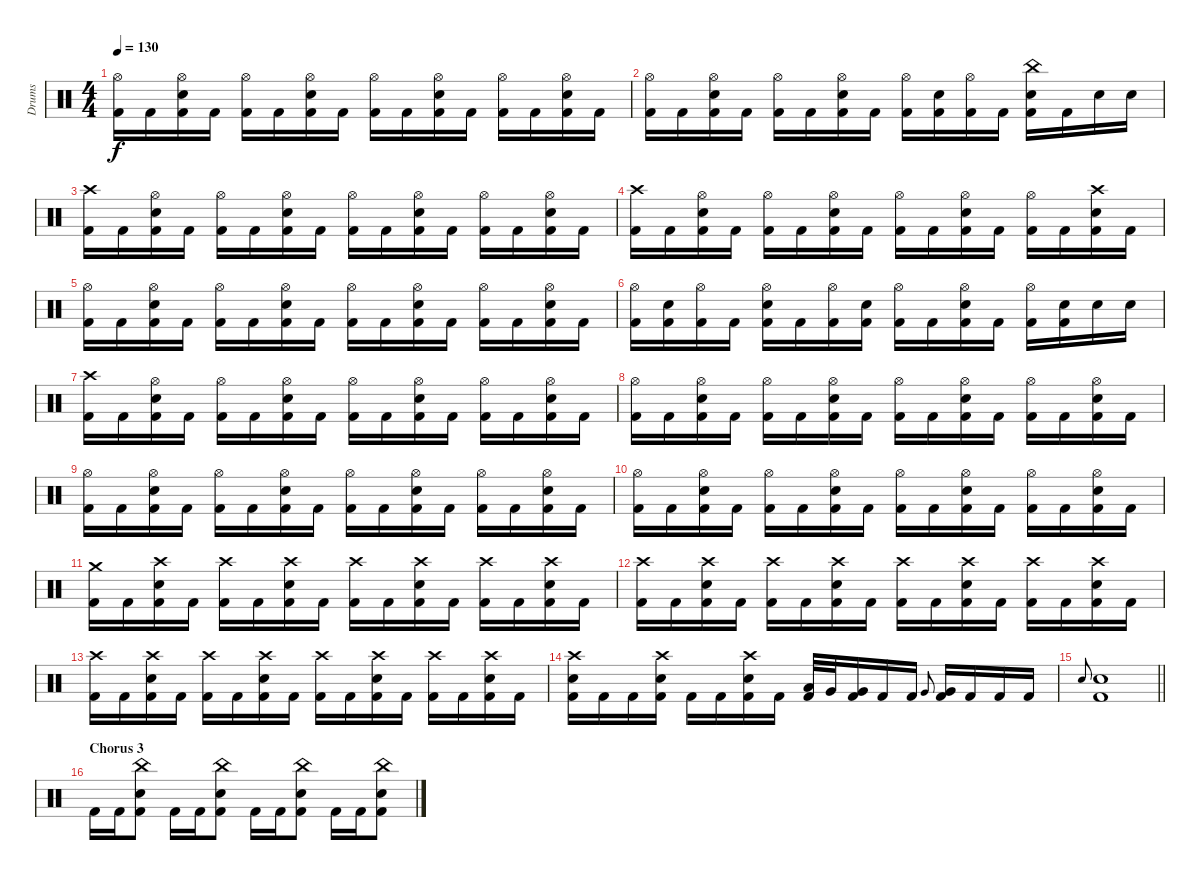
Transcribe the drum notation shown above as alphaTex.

\track ("Drums" "Drums") {instrument percussion}
\staff {score}
\articulation defaults
\ts (4 4)
\tempo 130
\clef neutral
\ks c
("Hi-Hat (open)" "Kick (hit) 2").16{dy f} "Kick (hit) 2".16 ("Hi-Hat (open)" "Electric Snare (hit)" "Kick (hit) 2").16 "Kick (hit) 2".16 ("Hi-Hat (open)" "Kick (hit) 2").16 "Kick (hit) 2".16 ("Hi-Hat (open)" "Electric Snare (hit)" "Kick (hit) 2").16 "Kick (hit) 2".16 ("Hi-Hat (open)" "Kick (hit) 2").16 "Kick (hit) 2".16 ("Hi-Hat (open)" "Electric Snare (hit)" "Kick (hit) 2").16 "Kick (hit) 2".16 ("Hi-Hat (open)" "Kick (hit) 2").16 "Kick (hit) 2".16 ("Hi-Hat (open)" "Electric Snare (hit)" "Kick (hit) 2").16 "Kick (hit) 2".16 |
("Hi-Hat (open)" "Kick (hit) 2").16 "Kick (hit) 2".16 ("Hi-Hat (open)" "Electric Snare (hit)" "Kick (hit) 2").16 "Kick (hit) 2".16 ("Hi-Hat (open)" "Kick (hit) 2").16 "Kick (hit) 2".16 ("Hi-Hat (open)" "Electric Snare (hit)" "Kick (hit) 2").16 "Kick (hit) 2".16 ("Hi-Hat (open)" "Kick (hit) 2").16 ("Electric Snare (hit)" "Kick (hit) 2").16 ("Hi-Hat (open)" "Kick (hit) 2").16 "Kick (hit) 2".16 ("China (hit)" "Electric Snare (hit)" "Kick (hit) 2").16 "Kick (hit) 2".16 "Electric Snare (hit)".16 "Electric Snare (hit)".16 |
("Crash high (hit)" "Kick (hit) 2").16 "Kick (hit) 2".16 ("Hi-Hat (open)" "Electric Snare (hit)" "Kick (hit) 2").16 "Kick (hit) 2".16 ("Hi-Hat (open)" "Kick (hit) 2").16 "Kick (hit) 2".16 ("Hi-Hat (open)" "Electric Snare (hit)" "Kick (hit) 2").16 "Kick (hit) 2".16 ("Hi-Hat (open)" "Kick (hit) 2").16 "Kick (hit) 2".16 ("Hi-Hat (open)" "Electric Snare (hit)" "Kick (hit) 2").16 "Kick (hit) 2".16 ("Hi-Hat (open)" "Kick (hit) 2").16 "Kick (hit) 2".16 ("Hi-Hat (open)" "Electric Snare (hit)" "Kick (hit) 2").16 "Kick (hit) 2".16 |
("Crash high (hit)" "Kick (hit) 2").16 "Kick (hit) 2".16 ("Hi-Hat (open)" "Electric Snare (hit)" "Kick (hit) 2").16 "Kick (hit) 2".16 ("Hi-Hat (open)" "Kick (hit) 2").16 "Kick (hit) 2".16 ("Hi-Hat (open)" "Electric Snare (hit)" "Kick (hit) 2").16 "Kick (hit) 2".16 ("Hi-Hat (open)" "Kick (hit) 2").16 "Kick (hit) 2".16 ("Hi-Hat (open)" "Electric Snare (hit)" "Kick (hit) 2").16 "Kick (hit) 2".16 ("Hi-Hat (open)" "Kick (hit) 2").16 "Kick (hit) 2".16 ("Crash high (hit)" "Electric Snare (hit)" "Kick (hit) 2").16 "Kick (hit) 2".16 |
("Hi-Hat (open)" "Kick (hit) 2").16 "Kick (hit) 2".16 ("Hi-Hat (open)" "Electric Snare (hit)" "Kick (hit) 2").16 "Kick (hit) 2".16 ("Hi-Hat (open)" "Kick (hit) 2").16 "Kick (hit) 2".16 ("Hi-Hat (open)" "Electric Snare (hit)" "Kick (hit) 2").16 "Kick (hit) 2".16 ("Hi-Hat (open)" "Kick (hit) 2").16 "Kick (hit) 2".16 ("Hi-Hat (open)" "Electric Snare (hit)" "Kick (hit) 2").16 "Kick (hit) 2".16 ("Hi-Hat (open)" "Kick (hit) 2").16 "Kick (hit) 2".16 ("Hi-Hat (open)" "Electric Snare (hit)" "Kick (hit) 2").16 "Kick (hit) 2".16 |
("Hi-Hat (open)" "Kick (hit) 2").16 ("Electric Snare (hit)" "Kick (hit) 2").16 ("Hi-Hat (open)" "Kick (hit) 2").16 "Kick (hit) 2".16 ("Hi-Hat (open)" "Electric Snare (hit)" "Kick (hit) 2").16 "Kick (hit) 2".16 ("Hi-Hat (open)" "Kick (hit) 2").16 ("Electric Snare (hit)" "Kick (hit) 2").16 ("Hi-Hat (open)" "Kick (hit) 2").16 "Kick (hit) 2".16 ("Hi-Hat (open)" "Electric Snare (hit)" "Kick (hit) 2").16 "Kick (hit) 2".16 ("Hi-Hat (open)" "Kick (hit) 2").16 ("Electric Snare (hit)" "Kick (hit) 2").16 "Electric Snare (hit)".16 "Electric Snare (hit)".16 |
("Crash high (hit)" "Kick (hit) 2").16 "Kick (hit) 2".16 ("Hi-Hat (open)" "Electric Snare (hit)" "Kick (hit) 2").16 "Kick (hit) 2".16 ("Hi-Hat (open)" "Kick (hit) 2").16 "Kick (hit) 2".16 ("Hi-Hat (open)" "Electric Snare (hit)" "Kick (hit) 2").16 "Kick (hit) 2".16 ("Hi-Hat (open)" "Kick (hit) 2").16 "Kick (hit) 2".16 ("Hi-Hat (open)" "Electric Snare (hit)" "Kick (hit) 2").16 "Kick (hit) 2".16 ("Hi-Hat (open)" "Kick (hit) 2").16 "Kick (hit) 2".16 ("Hi-Hat (open)" "Electric Snare (hit)" "Kick (hit) 2").16 "Kick (hit) 2".16 |
("Hi-Hat (open)" "Kick (hit) 2").16 "Kick (hit) 2".16 ("Hi-Hat (open)" "Electric Snare (hit)" "Kick (hit) 2").16 "Kick (hit) 2".16 ("Hi-Hat (open)" "Kick (hit) 2").16 "Kick (hit) 2".16 ("Hi-Hat (open)" "Electric Snare (hit)" "Kick (hit) 2").16 "Kick (hit) 2".16 ("Hi-Hat (open)" "Kick (hit) 2").16 "Kick (hit) 2".16 ("Hi-Hat (open)" "Electric Snare (hit)" "Kick (hit) 2").16 "Kick (hit) 2".16 ("Hi-Hat (open)" "Kick (hit) 2").16 "Kick (hit) 2".16 ("Hi-Hat (open)" "Electric Snare (hit)" "Kick (hit) 2").16 "Kick (hit) 2".16 |
("Hi-Hat (open)" "Kick (hit) 2").16 "Kick (hit) 2".16 ("Hi-Hat (open)" "Electric Snare (hit)" "Kick (hit) 2").16 "Kick (hit) 2".16 ("Hi-Hat (open)" "Kick (hit) 2").16 "Kick (hit) 2".16 ("Hi-Hat (open)" "Electric Snare (hit)" "Kick (hit) 2").16 "Kick (hit) 2".16 ("Hi-Hat (open)" "Kick (hit) 2").16 "Kick (hit) 2".16 ("Hi-Hat (open)" "Electric Snare (hit)" "Kick (hit) 2").16 "Kick (hit) 2".16 ("Hi-Hat (open)" "Kick (hit) 2").16 "Kick (hit) 2".16 ("Hi-Hat (open)" "Electric Snare (hit)" "Kick (hit) 2").16 "Kick (hit) 2".16 |
("Hi-Hat (open)" "Kick (hit) 2").16 "Kick (hit) 2".16 ("Hi-Hat (open)" "Electric Snare (hit)" "Kick (hit) 2").16 "Kick (hit) 2".16 ("Hi-Hat (open)" "Kick (hit) 2").16 "Kick (hit) 2".16 ("Hi-Hat (open)" "Electric Snare (hit)" "Kick (hit) 2").16 "Kick (hit) 2".16 ("Hi-Hat (open)" "Kick (hit) 2").16 "Kick (hit) 2".16 ("Hi-Hat (open)" "Electric Snare (hit)" "Kick (hit) 2").16 "Kick (hit) 2".16 ("Hi-Hat (open)" "Kick (hit) 2").16 "Kick (hit) 2".16 ("Hi-Hat (open)" "Electric Snare (hit)" "Kick (hit) 2").16 "Kick (hit) 2".16 |
("Crash medium (hit)" "Kick (hit) 2").16 "Kick (hit) 2".16 ("Crash high (hit)" "Electric Snare (hit)" "Kick (hit) 2").16 "Kick (hit) 2".16 ("Crash high (hit)" "Kick (hit) 2").16 "Kick (hit) 2".16 ("Crash high (hit)" "Electric Snare (hit)" "Kick (hit) 2").16 "Kick (hit) 2".16 ("Crash high (hit)" "Kick (hit) 2").16 "Kick (hit) 2".16 ("Crash high (hit)" "Electric Snare (hit)" "Kick (hit) 2").16 "Kick (hit) 2".16 ("Crash high (hit)" "Kick (hit) 2").16 "Kick (hit) 2".16 ("Crash high (hit)" "Electric Snare (hit)" "Kick (hit) 2").16 "Kick (hit) 2".16 |
("Crash high (hit)" "Kick (hit) 2").16 "Kick (hit) 2".16 ("Crash high (hit)" "Electric Snare (hit)" "Kick (hit) 2").16 "Kick (hit) 2".16 ("Crash high (hit)" "Kick (hit) 2").16 "Kick (hit) 2".16 ("Crash high (hit)" "Electric Snare (hit)" "Kick (hit) 2").16 "Kick (hit) 2".16 ("Crash high (hit)" "Kick (hit) 2").16 "Kick (hit) 2".16 ("Crash high (hit)" "Electric Snare (hit)" "Kick (hit) 2").16 "Kick (hit) 2".16 ("Crash high (hit)" "Kick (hit) 2").16 "Kick (hit) 2".16 ("Crash high (hit)" "Electric Snare (hit)" "Kick (hit) 2").16 "Kick (hit) 2".16 |
("Crash high (hit)" "Kick (hit) 2").16 "Kick (hit) 2".16 ("Crash high (hit)" "Electric Snare (hit)" "Kick (hit) 2").16 "Kick (hit) 2".16 ("Crash high (hit)" "Kick (hit) 2").16 "Kick (hit) 2".16 ("Crash high (hit)" "Electric Snare (hit)" "Kick (hit) 2").16 "Kick (hit) 2".16 ("Crash high (hit)" "Kick (hit) 2").16 "Kick (hit) 2".16 ("Crash high (hit)" "Electric Snare (hit)" "Kick (hit) 2").16 "Kick (hit) 2".16 ("Crash high (hit)" "Kick (hit) 2").16 "Kick (hit) 2".16 ("Crash high (hit)" "Electric Snare (hit)" "Kick (hit) 2").16 "Kick (hit) 2".16 |
("Crash high (hit)" "Electric Snare (hit)" "Kick (hit) 2").16 "Kick (hit) 2".16 "Kick (hit) 2".16 ("Crash high (hit)" "Electric Snare (hit)" "Kick (hit) 2").16 "Kick (hit) 2".16 "Kick (hit) 2".16 ("Crash high (hit)" "Electric Snare (hit)" "Kick (hit) 2").16 "Kick (hit) 2".16 ("Low Tom (hit)" "Kick (hit) 2").32 "Very Low Tom (hit)".32 ("Very Low Tom (hit)" "Kick (hit) 2").16 "Kick (hit) 2".16 "Kick (hit) 2".16 "Very Low Tom (hit)".8{gr onbeat} ("Very Low Tom (hit)" "Kick (hit) 2").16 "Kick (hit) 2".16 "Kick (hit) 2".16 "Kick (hit) 2".16 |
\barLineRight lightlight "Electric Snare (hit)".8{gr onbeat}
("Electric Snare (hit)" "Kick (hit) 2").1 |
\section ("" "Chorus 3")
"Kick (hit) 2".16 "Kick (hit) 2".16 ("China (hit)" "Electric Snare (hit)" "Kick (hit) 2").8 "Kick (hit) 2".16 "Kick (hit) 2".16 ("China (hit)" "Electric Snare (hit)" "Kick (hit) 2").8 "Kick (hit) 2".16 "Kick (hit) 2".16 ("China (hit)" "Electric Snare (hit)" "Kick (hit) 2").8 "Kick (hit) 2".16 "Kick (hit) 2".16 ("China (hit)" "Electric Snare (hit)" "Kick (hit) 2").8
